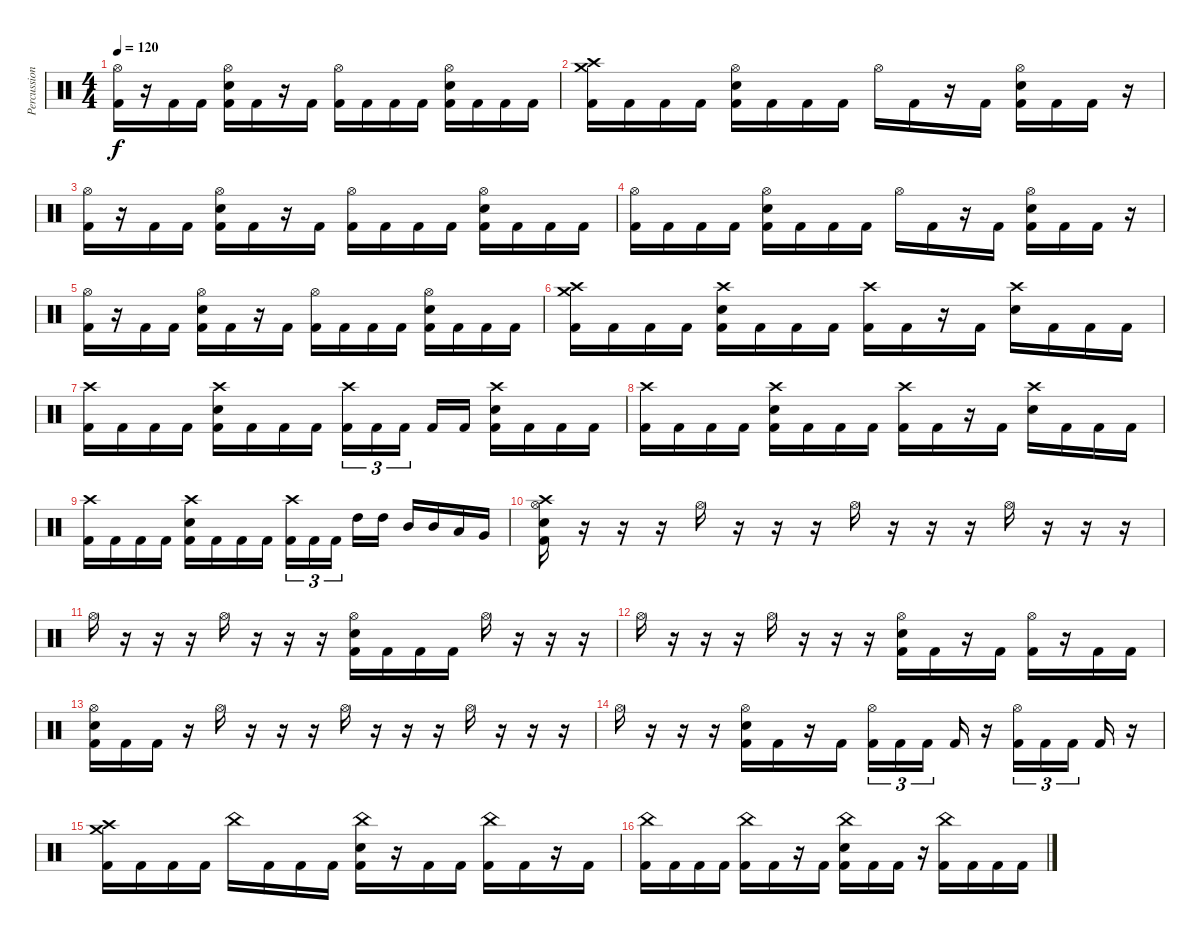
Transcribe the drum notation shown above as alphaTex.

\track ("Percussion" "Percussion") {instrument percussion}
\staff {score}
\articulation defaults
\ts (4 4)
\tempo 120
\clef neutral
\ks c
("Hi-Hat (open)" "Kick (hit) 2").16{dy f} r.16 "Kick (hit) 2".16 "Kick (hit) 2".16 ("Hi-Hat (open)" "Electric Snare (hit)" "Kick (hit) 2").16 "Kick (hit) 2".16 r.16 "Kick (hit) 2".16 ("Hi-Hat (open)" "Kick (hit) 2").16 "Kick (hit) 2".16 "Kick (hit) 2".16 "Kick (hit) 2".16 ("Hi-Hat (open)" "Electric Snare (hit)" "Kick (hit) 2").16 "Kick (hit) 2".16 "Kick (hit) 2".16 "Kick (hit) 2".16 |
("Crash high (hit)" "Crash medium (hit)" "Kick (hit) 2").16 "Kick (hit) 2".16 "Kick (hit) 2".16 "Kick (hit) 2".16 ("Hi-Hat (open)" "Electric Snare (hit)" "Kick (hit) 2").16 "Kick (hit) 2".16 "Kick (hit) 2".16 "Kick (hit) 2".16 "Hi-Hat (open)".16 "Kick (hit) 2".16 r.16 "Kick (hit) 2".16 ("Hi-Hat (open)" "Electric Snare (hit)" "Kick (hit) 2").16 "Kick (hit) 2".16 "Kick (hit) 2".16 r.16 |
("Hi-Hat (open)" "Kick (hit) 2").16 r.16 "Kick (hit) 2".16 "Kick (hit) 2".16 ("Hi-Hat (open)" "Electric Snare (hit)" "Kick (hit) 2").16 "Kick (hit) 2".16 r.16 "Kick (hit) 2".16 ("Hi-Hat (open)" "Kick (hit) 2").16 "Kick (hit) 2".16 "Kick (hit) 2".16 "Kick (hit) 2".16 ("Hi-Hat (open)" "Electric Snare (hit)" "Kick (hit) 2").16 "Kick (hit) 2".16 "Kick (hit) 2".16 "Kick (hit) 2".16 |
("Hi-Hat (open)" "Kick (hit) 2").16 "Kick (hit) 2".16 "Kick (hit) 2".16 "Kick (hit) 2".16 ("Hi-Hat (open)" "Electric Snare (hit)" "Kick (hit) 2").16 "Kick (hit) 2".16 "Kick (hit) 2".16 "Kick (hit) 2".16 "Hi-Hat (open)".16 "Kick (hit) 2".16 r.16 "Kick (hit) 2".16 ("Hi-Hat (open)" "Electric Snare (hit)" "Kick (hit) 2").16 "Kick (hit) 2".16 "Kick (hit) 2".16 r.16 |
("Hi-Hat (open)" "Kick (hit) 2").16 r.16 "Kick (hit) 2".16 "Kick (hit) 2".16 ("Hi-Hat (open)" "Electric Snare (hit)" "Kick (hit) 2").16 "Kick (hit) 2".16 r.16 "Kick (hit) 2".16 ("Hi-Hat (open)" "Kick (hit) 2").16 "Kick (hit) 2".16 "Kick (hit) 2".16 "Kick (hit) 2".16 ("Hi-Hat (open)" "Electric Snare (hit)" "Kick (hit) 2").16 "Kick (hit) 2".16 "Kick (hit) 2".16 "Kick (hit) 2".16 |
("Crash high (hit)" "Crash medium (hit)" "Kick (hit) 2").16 "Kick (hit) 2".16 "Kick (hit) 2".16 "Kick (hit) 2".16 ("Crash high (hit)" "Electric Snare (hit)" "Kick (hit) 2").16 "Kick (hit) 2".16 "Kick (hit) 2".16 "Kick (hit) 2".16 ("Crash high (hit)" "Kick (hit) 2").16 "Kick (hit) 2".16 r.16 "Kick (hit) 2".16 ("Crash high (hit)" "Electric Snare (hit)").16 "Kick (hit) 2".16 "Kick (hit) 2".16 "Kick (hit) 2".16 |
("Crash high (hit)" "Kick (hit) 2").16 "Kick (hit) 2".16 "Kick (hit) 2".16 "Kick (hit) 2".16 ("Crash high (hit)" "Electric Snare (hit)" "Kick (hit) 2").16 "Kick (hit) 2".16 "Kick (hit) 2".16 "Kick (hit) 2".16 ("Crash high (hit)" "Kick (hit) 2").16{tu (3 2)} "Kick (hit) 2".16{tu (3 2)} "Kick (hit) 2".16{tu (3 2) beam splitsecondary} "Kick (hit) 2".16 "Kick (hit) 2".16 ("Crash high (hit)" "Electric Snare (hit)" "Kick (hit) 2").16 "Kick (hit) 2".16 "Kick (hit) 2".16 "Kick (hit) 2".16 |
("Crash high (hit)" "Kick (hit) 2").16 "Kick (hit) 2".16 "Kick (hit) 2".16 "Kick (hit) 2".16 ("Crash high (hit)" "Electric Snare (hit)" "Kick (hit) 2").16 "Kick (hit) 2".16 "Kick (hit) 2".16 "Kick (hit) 2".16 ("Crash high (hit)" "Kick (hit) 2").16 "Kick (hit) 2".16 r.16 "Kick (hit) 2".16 ("Crash high (hit)" "Electric Snare (hit)").16 "Kick (hit) 2".16 "Kick (hit) 2".16 "Kick (hit) 2".16 |
("Crash high (hit)" "Kick (hit) 2").16 "Kick (hit) 2".16 "Kick (hit) 2".16 "Kick (hit) 2".16 ("Crash high (hit)" "Electric Snare (hit)" "Kick (hit) 2").16 "Kick (hit) 2".16 "Kick (hit) 2".16 "Kick (hit) 2".16 ("Crash high (hit)" "Kick (hit) 2").16{tu (3 2)} "Kick (hit) 2".16{tu (3 2)} "Kick (hit) 2".16{tu (3 2) beam splitsecondary} "High Tom (hit)".16 "High Tom (hit)".16 "Mid Tom (hit)".16 "Mid Tom (hit)".16 "Low Tom (hit)".16 "Very Low Tom (hit)".16 |
("Crash high (hit)" "Hi-Hat (open)" "Electric Snare (hit)" "Kick (hit) 2").16 r.16 r.16 r.16 "Hi-Hat (open)".16 r.16 r.16 r.16 "Hi-Hat (open)".16 r.16 r.16 r.16 "Hi-Hat (open)".16 r.16 r.16 r.16 |
"Hi-Hat (open)".16 r.16 r.16 r.16 "Hi-Hat (open)".16 r.16 r.16 r.16 ("Hi-Hat (open)" "Electric Snare (hit)" "Kick (hit) 2").16 "Kick (hit) 2".16 "Kick (hit) 2".16 "Kick (hit) 2".16 "Hi-Hat (open)".16 r.16 r.16 r.16 |
"Hi-Hat (open)".16 r.16 r.16 r.16 "Hi-Hat (open)".16 r.16 r.16 r.16 ("Hi-Hat (open)" "Electric Snare (hit)" "Kick (hit) 2").16 "Kick (hit) 2".16 r.16 "Kick (hit) 2".16 ("Hi-Hat (open)" "Kick (hit) 2").16 r.16 "Kick (hit) 2".16 "Kick (hit) 2".16 |
("Hi-Hat (open)" "Electric Snare (hit)" "Kick (hit) 2").16 "Kick (hit) 2".16 "Kick (hit) 2".16 r.16 "Hi-Hat (open)".16 r.16 r.16 r.16 "Hi-Hat (open)".16 r.16 r.16 r.16 "Hi-Hat (open)".16 r.16 r.16 r.16 |
"Hi-Hat (open)".16 r.16 r.16 r.16 ("Hi-Hat (open)" "Electric Snare (hit)" "Kick (hit) 2").16 "Kick (hit) 2".16 r.16 "Kick (hit) 2".16 ("Hi-Hat (open)" "Kick (hit) 2").16{tu (3 2)} "Kick (hit) 2".16{tu (3 2)} "Kick (hit) 2".16{tu (3 2) beam splitsecondary} "Kick (hit) 2".16 r.16 ("Hi-Hat (open)" "Kick (hit) 2").16{tu (3 2)} "Kick (hit) 2".16{tu (3 2)} "Kick (hit) 2".16{tu (3 2) beam splitsecondary} "Kick (hit) 2".16 r.16 |
("Crash high (hit)" "Crash medium (hit)" "Kick (hit) 2").16 "Kick (hit) 2".16 "Kick (hit) 2".16 "Kick (hit) 2".16 "China (hit)".16 "Kick (hit) 2".16 "Kick (hit) 2".16 "Kick (hit) 2".16 ("China (hit)" "Electric Snare (hit)" "Kick (hit) 2").16 r.16 "Kick (hit) 2".16 "Kick (hit) 2".16 ("China (hit)" "Kick (hit) 2").16 "Kick (hit) 2".16 r.16 "Kick (hit) 2".16 |
("China (hit)" "Kick (hit) 2").16 "Kick (hit) 2".16 "Kick (hit) 2".16 "Kick (hit) 2".16 ("China (hit)" "Kick (hit) 2").16 "Kick (hit) 2".16 r.16 "Kick (hit) 2".16 ("China (hit)" "Electric Snare (hit)" "Kick (hit) 2").16 "Kick (hit) 2".16 "Kick (hit) 2".16 r.16 ("China (hit)" "Kick (hit) 2").16 "Kick (hit) 2".16 "Kick (hit) 2".16 "Kick (hit) 2".16
